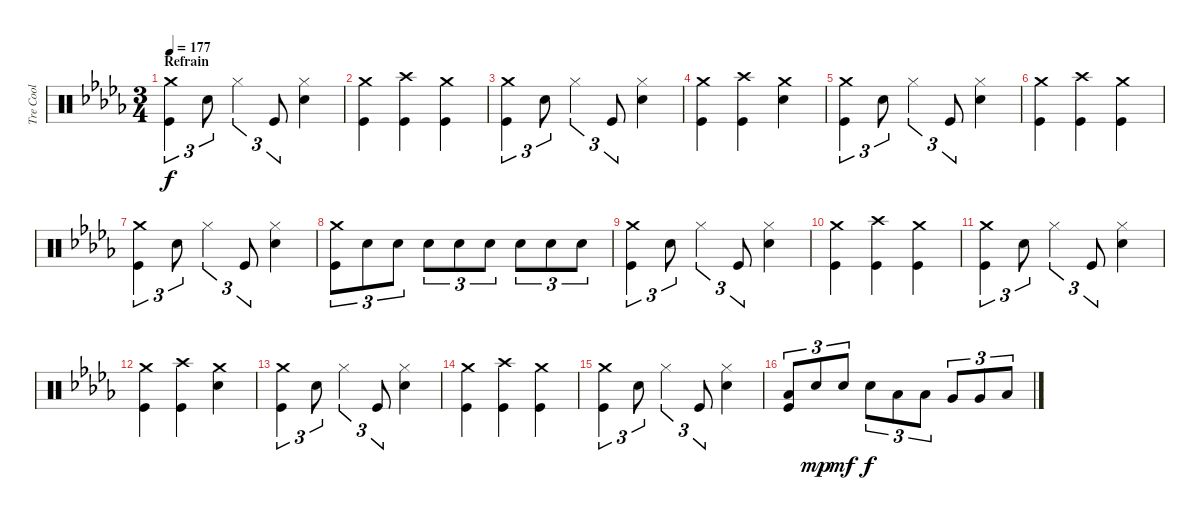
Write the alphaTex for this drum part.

\track ("Tre Cool" "Tre Cool") {instrument percussion}
\staff {score}
\articulation defaults
\ts (3 4)
\section ("" "Refrain")
\tempo 177
\clef neutral
\ks db
("Crash medium (hit)" "Kick (hit)").4{tu (3 2) dy f} "Electric Snare (hit)".8{tu (3 2)} "Hi-Hat (closed)".4{tu (3 2)} "Kick (hit)".8{tu (3 2)} ("Hi-Hat (closed)" "Electric Snare (hit)").4 |
("Crash medium (hit)" "Kick (hit)").4 ("Crash high (hit)" "Kick (hit)").4 ("Crash medium (hit)" "Kick (hit)").4 |
("Crash medium (hit)" "Kick (hit)").4{tu (3 2)} "Electric Snare (hit)".8{tu (3 2)} "Hi-Hat (closed)".4{tu (3 2)} "Kick (hit)".8{tu (3 2)} ("Hi-Hat (closed)" "Electric Snare (hit)").4 |
("Crash medium (hit)" "Kick (hit)").4 ("Crash high (hit)" "Kick (hit)").4 ("Crash medium (hit)" "Electric Snare (hit)").4 |
("Crash medium (hit)" "Kick (hit)").4{tu (3 2)} "Electric Snare (hit)".8{tu (3 2)} "Hi-Hat (closed)".4{tu (3 2)} "Kick (hit)".8{tu (3 2)} ("Hi-Hat (closed)" "Electric Snare (hit)").4 |
("Crash medium (hit)" "Kick (hit)").4 ("Crash high (hit)" "Kick (hit)").4 ("Crash medium (hit)" "Kick (hit)").4 |
("Crash medium (hit)" "Kick (hit)").4{tu (3 2)} "Electric Snare (hit)".8{tu (3 2)} "Hi-Hat (closed)".4{tu (3 2)} "Kick (hit)".8{tu (3 2)} ("Hi-Hat (closed)" "Electric Snare (hit)").4 |
("Crash medium (hit)" "Kick (hit)").8{tu (3 2)} "Electric Snare (hit)".8{tu (3 2)} "Electric Snare (hit)".8{tu (3 2)} "Electric Snare (hit)".8{tu (3 2)} "Electric Snare (hit)".8{tu (3 2)} "Electric Snare (hit)".8{tu (3 2)} "Electric Snare (hit)".8{tu (3 2)} "Electric Snare (hit)".8{tu (3 2)} "Electric Snare (hit)".8{tu (3 2)} |
("Crash medium (hit)" "Kick (hit)").4{tu (3 2)} "Electric Snare (hit)".8{tu (3 2)} "Hi-Hat (closed)".4{tu (3 2)} "Kick (hit)".8{tu (3 2)} ("Hi-Hat (closed)" "Electric Snare (hit)").4 |
("Crash medium (hit)" "Kick (hit)").4 ("Crash high (hit)" "Kick (hit)").4 ("Crash medium (hit)" "Kick (hit)").4 |
("Crash medium (hit)" "Kick (hit)").4{tu (3 2)} "Electric Snare (hit)".8{tu (3 2)} "Hi-Hat (closed)".4{tu (3 2)} "Kick (hit)".8{tu (3 2)} ("Hi-Hat (closed)" "Electric Snare (hit)").4 |
("Crash medium (hit)" "Kick (hit)").4 ("Crash high (hit)" "Kick (hit)").4 ("Crash medium (hit)" "Electric Snare (hit)").4 |
("Crash medium (hit)" "Kick (hit)").4{tu (3 2)} "Electric Snare (hit)".8{tu (3 2)} "Hi-Hat (closed)".4{tu (3 2)} "Kick (hit)".8{tu (3 2)} ("Hi-Hat (closed)" "Electric Snare (hit)").4 |
("Crash medium (hit)" "Kick (hit)").4 ("Crash high (hit)" "Kick (hit)").4 ("Crash medium (hit)" "Kick (hit)").4 |
("Crash medium (hit)" "Kick (hit)").4{tu (3 2)} "Electric Snare (hit)".8{tu (3 2)} "Hi-Hat (closed)".4{tu (3 2)} "Kick (hit)".8{tu (3 2)} ("Hi-Hat (closed)" "Electric Snare (hit)").4 |
("Low Tom (hit)" "Kick (hit)").8{tu (3 2)} "Electric Snare (hit)".8{tu (3 2) dy mp} "Electric Snare (hit)".8{tu (3 2) dy mf} "Electric Snare (hit)".8{tu (3 2) dy f} "Low Tom (hit)".8{tu (3 2)} "Low Tom (hit)".8{tu (3 2)} "Very Low Tom (hit)".8{tu (3 2)} "Very Low Tom (hit)".8{tu (3 2)} "Low Floor Tom (hit)".8{tu (3 2)}
